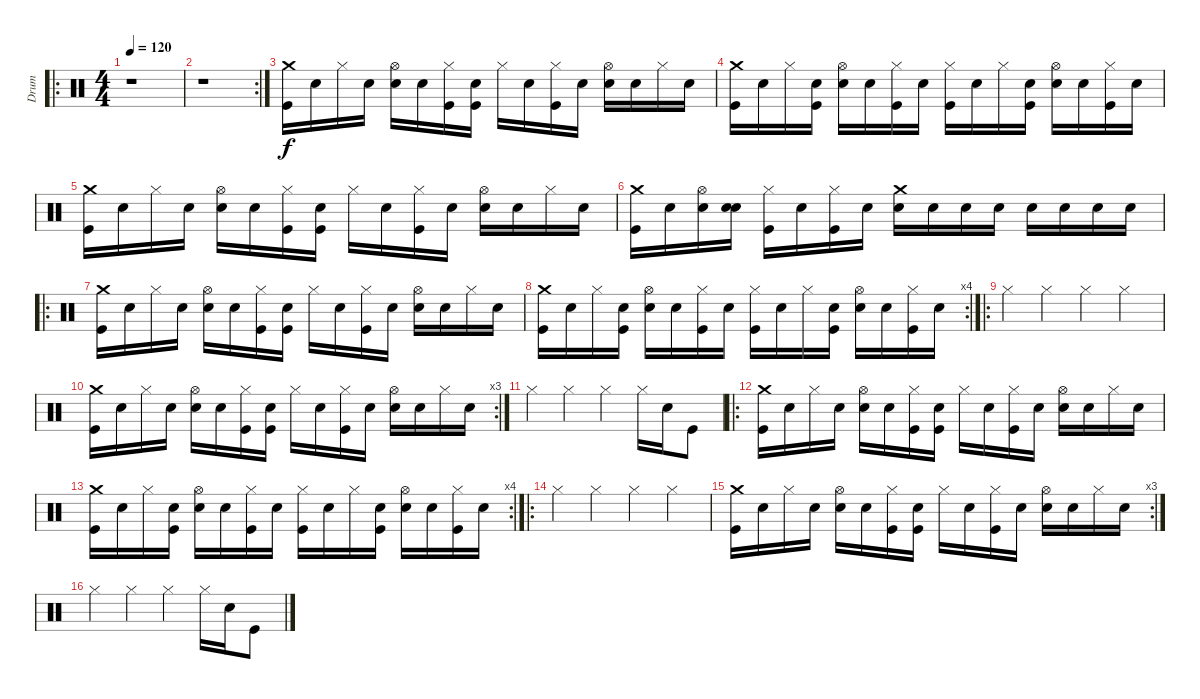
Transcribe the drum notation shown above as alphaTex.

\track ("Drum" "Drum") {instrument percussion}
\staff {score}
\articulation defaults
\ro
\ts (4 4)
\tempo 120
\clef neutral
\ks c
r.1{dy f} |
\rc 2
r.1 |
("Crash medium (hit)" "Kick (hit)").16 "Snare (hit)".16 "Hi-Hat (closed)".16 "Snare (hit)".16 ("Hi-Hat (open)" "Snare (hit) 2").16 "Snare (hit)".16 ("Hi-Hat (closed)" "Kick (hit)").16 ("Snare (hit)" "Kick (hit)").16 "Hi-Hat (closed)".16 "Snare (hit)".16 ("Hi-Hat (closed)" "Kick (hit)").16 "Snare (hit)".16 ("Hi-Hat (open)" "Snare (hit) 2").16 "Snare (hit)".16 "Hi-Hat (closed)".16 "Snare (hit)".16 |
("Crash medium (hit)" "Kick (hit)").16 "Snare (hit)".16 "Hi-Hat (closed)".16 ("Snare (hit)" "Kick (hit)").16 ("Hi-Hat (open)" "Snare (hit) 2").16 "Snare (hit)".16 ("Hi-Hat (closed)" "Kick (hit)").16 "Snare (hit)".16 ("Hi-Hat (closed)" "Kick (hit)").16 "Snare (hit)".16 "Hi-Hat (closed)".16 ("Snare (hit)" "Kick (hit)").16 ("Hi-Hat (open)" "Snare (hit) 2").16 "Snare (hit)".16 ("Hi-Hat (closed)" "Kick (hit)").16 "Snare (hit)".16 |
("Crash medium (hit)" "Kick (hit)").16 "Snare (hit)".16 "Hi-Hat (closed)".16 "Snare (hit)".16 ("Hi-Hat (open)" "Snare (hit) 2").16 "Snare (hit)".16 ("Hi-Hat (closed)" "Kick (hit)").16 ("Snare (hit)" "Kick (hit)").16 "Hi-Hat (closed)".16 "Snare (hit)".16 ("Hi-Hat (closed)" "Kick (hit)").16 "Snare (hit)".16 ("Hi-Hat (open)" "Snare (hit) 2").16 "Snare (hit)".16 "Hi-Hat (closed)".16 "Snare (hit)".16 |
("Crash medium (hit)" "Kick (hit)").16 "Snare (hit)".16 ("Hi-Hat (open)" "Snare (hit) 2").16 ("Snare (hit)" "Snare (hit) 2").16 ("Hi-Hat (closed)" "Kick (hit)").16 "Snare (hit)".16 ("Hi-Hat (closed)" "Kick (hit)").16 "Snare (hit)".16 ("Crash medium (hit)" "Snare (hit) 2").16 "Snare (hit)".16 "Snare (hit)".16 "Snare (hit)".16 "Snare (hit)".16 "Snare (hit)".16 "Snare (hit)".16 "Snare (hit)".16 |
\ro
("Crash medium (hit)" "Kick (hit)").16 "Snare (hit)".16 "Hi-Hat (closed)".16 "Snare (hit)".16 ("Hi-Hat (open)" "Snare (hit) 2").16 "Snare (hit)".16 ("Hi-Hat (closed)" "Kick (hit)").16 ("Snare (hit)" "Kick (hit)").16 "Hi-Hat (closed)".16 "Snare (hit)".16 ("Hi-Hat (closed)" "Kick (hit)").16 "Snare (hit)".16 ("Hi-Hat (open)" "Snare (hit) 2").16 "Snare (hit)".16 "Hi-Hat (closed)".16 "Snare (hit)".16 |
\rc 4
("Crash medium (hit)" "Kick (hit)").16 "Snare (hit)".16 "Hi-Hat (closed)".16 ("Snare (hit)" "Kick (hit)").16 ("Hi-Hat (open)" "Snare (hit) 2").16 "Snare (hit)".16 ("Hi-Hat (closed)" "Kick (hit)").16 "Snare (hit)".16 ("Hi-Hat (closed)" "Kick (hit)").16 "Snare (hit)".16 "Hi-Hat (closed)".16 ("Snare (hit)" "Kick (hit)").16 ("Hi-Hat (open)" "Snare (hit) 2").16 "Snare (hit)".16 ("Hi-Hat (closed)" "Kick (hit)").16 "Snare (hit)".16 |
\ro "Hi-Hat (closed)".4 "Hi-Hat (closed)".4 "Hi-Hat (closed)".4 "Hi-Hat (closed)".4
|
\rc 3
("Crash medium (hit)" "Kick (hit)").16 "Snare (hit)".16 "Hi-Hat (closed)".16 "Snare (hit)".16 ("Hi-Hat (open)" "Snare (hit) 2").16 "Snare (hit)".16 ("Hi-Hat (closed)" "Kick (hit)").16 ("Snare (hit)" "Kick (hit)").16 "Hi-Hat (closed)".16 "Snare (hit)".16 ("Hi-Hat (closed)" "Kick (hit)").16 "Snare (hit)".16 ("Hi-Hat (open)" "Snare (hit) 2").16 "Snare (hit)".16 "Hi-Hat (closed)".16 "Snare (hit)".16 |
"Hi-Hat (closed)".4 "Hi-Hat (closed)".4 "Hi-Hat (closed)".4 "Hi-Hat (closed)".16 "Snare (hit) 2".16 "Kick (hit)".8 |
\ro
("Crash medium (hit)" "Kick (hit)").16 "Snare (hit)".16 "Hi-Hat (closed)".16 "Snare (hit)".16 ("Hi-Hat (open)" "Snare (hit) 2").16 "Snare (hit)".16 ("Hi-Hat (closed)" "Kick (hit)").16 ("Snare (hit)" "Kick (hit)").16 "Hi-Hat (closed)".16 "Snare (hit)".16 ("Hi-Hat (closed)" "Kick (hit)").16 "Snare (hit)".16 ("Hi-Hat (open)" "Snare (hit) 2").16 "Snare (hit)".16 "Hi-Hat (closed)".16 "Snare (hit)".16 |
\rc 4
("Crash medium (hit)" "Kick (hit)").16 "Snare (hit)".16 "Hi-Hat (closed)".16 ("Snare (hit)" "Kick (hit)").16 ("Hi-Hat (open)" "Snare (hit) 2").16 "Snare (hit)".16 ("Hi-Hat (closed)" "Kick (hit)").16 "Snare (hit)".16 ("Hi-Hat (closed)" "Kick (hit)").16 "Snare (hit)".16 "Hi-Hat (closed)".16 ("Snare (hit)" "Kick (hit)").16 ("Hi-Hat (open)" "Snare (hit) 2").16 "Snare (hit)".16 ("Hi-Hat (closed)" "Kick (hit)").16 "Snare (hit)".16 |
\ro "Hi-Hat (closed)".4 "Hi-Hat (closed)".4 "Hi-Hat (closed)".4 "Hi-Hat (closed)".4
|
\rc 3
("Crash medium (hit)" "Kick (hit)").16 "Snare (hit)".16 "Hi-Hat (closed)".16 "Snare (hit)".16 ("Hi-Hat (open)" "Snare (hit) 2").16 "Snare (hit)".16 ("Hi-Hat (closed)" "Kick (hit)").16 ("Snare (hit)" "Kick (hit)").16 "Hi-Hat (closed)".16 "Snare (hit)".16 ("Hi-Hat (closed)" "Kick (hit)").16 "Snare (hit)".16 ("Hi-Hat (open)" "Snare (hit) 2").16 "Snare (hit)".16 "Hi-Hat (closed)".16 "Snare (hit)".16 |
"Hi-Hat (closed)".4 "Hi-Hat (closed)".4 "Hi-Hat (closed)".4 "Hi-Hat (closed)".16 "Snare (hit) 2".16 "Kick (hit)".8
